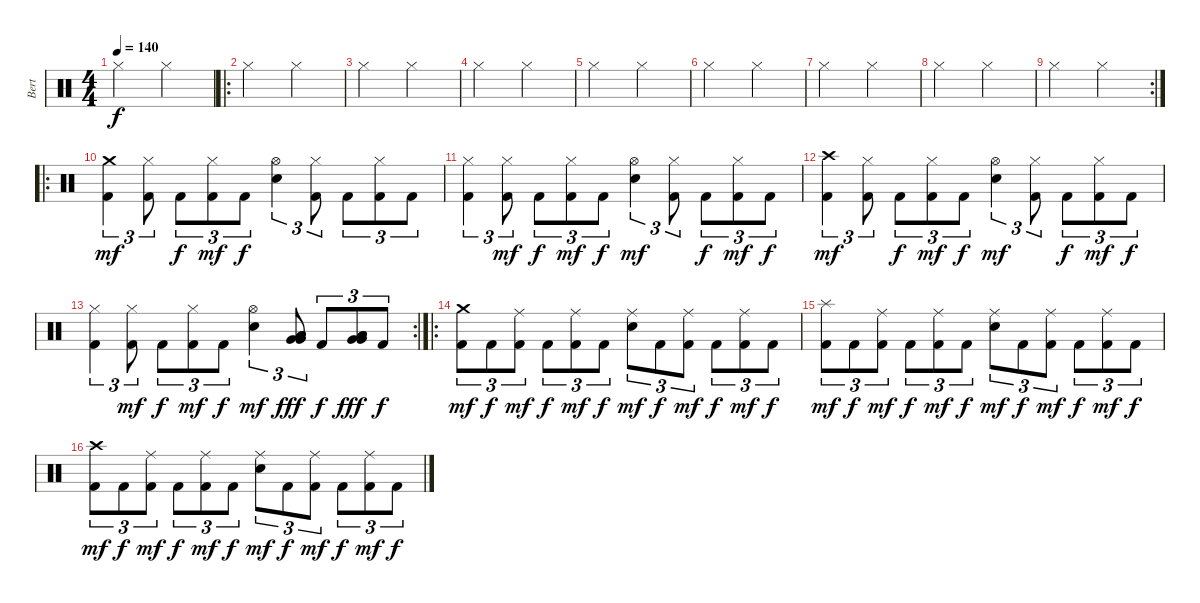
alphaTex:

\track ("Bert" "Bert") {instrument percussion}
\staff {score}
\articulation defaults
\ts (4 4)
\tempo 140
\clef neutral
\ks c "Hi-Hat (closed)".2{dy f} "Hi-Hat (closed)".2
|
\ro "Hi-Hat (closed)".2 "Hi-Hat (closed)".2
|
"Hi-Hat (closed)".2 "Hi-Hat (closed)".2 |
"Hi-Hat (closed)".2 "Hi-Hat (closed)".2 |
"Hi-Hat (closed)".2 "Hi-Hat (closed)".2 |
"Hi-Hat (closed)".2 "Hi-Hat (closed)".2 |
"Hi-Hat (closed)".2 "Hi-Hat (closed)".2 |
"Hi-Hat (closed)".2 "Hi-Hat (closed)".2 |
\rc 2 "Hi-Hat (closed)".2 "Hi-Hat (closed)".2
|
\ro
("Crash medium (hit)" "Kick (hit) 2").4{tu (3 2) dy mf} ("Hi-Hat (closed)" "Kick (hit) 2").8{tu (3 2)} "Kick (hit) 2".8{tu (3 2) dy f} ("Hi-Hat (closed)" "Kick (hit) 2").8{tu (3 2) dy mf} "Kick (hit) 2".8{tu (3 2) dy f} ("Hi-Hat (open)" "Snare (hit) 2").4{tu (3 2)} ("Hi-Hat (closed)" "Kick (hit) 2").8{tu (3 2)} "Kick (hit) 2".8{tu (3 2)} ("Hi-Hat (closed)" "Kick (hit) 2").8{tu (3 2)} "Kick (hit) 2".8{tu (3 2)} |
("Hi-Hat (closed)" "Kick (hit) 2").4{tu (3 2)} ("Hi-Hat (closed)" "Kick (hit) 2").8{tu (3 2) dy mf} "Kick (hit) 2".8{tu (3 2) dy f} ("Hi-Hat (closed)" "Kick (hit) 2").8{tu (3 2) dy mf} "Kick (hit) 2".8{tu (3 2) dy f} ("Hi-Hat (open)" "Snare (hit) 2").4{tu (3 2) dy mf} ("Hi-Hat (closed)" "Kick (hit) 2").8{tu (3 2)} "Kick (hit) 2".8{tu (3 2) dy f} ("Hi-Hat (closed)" "Kick (hit) 2").8{tu (3 2) dy mf} "Kick (hit) 2".8{tu (3 2) dy f} |
("Crash high (hit)" "Kick (hit) 2").4{tu (3 2) dy mf} ("Hi-Hat (closed)" "Kick (hit) 2").8{tu (3 2)} "Kick (hit) 2".8{tu (3 2) dy f} ("Hi-Hat (closed)" "Kick (hit) 2").8{tu (3 2) dy mf} "Kick (hit) 2".8{tu (3 2) dy f} ("Hi-Hat (open)" "Snare (hit) 2").4{tu (3 2) dy mf} ("Hi-Hat (closed)" "Kick (hit) 2").8{tu (3 2)} "Kick (hit) 2".8{tu (3 2) dy f} ("Hi-Hat (closed)" "Kick (hit) 2").8{tu (3 2) dy mf} "Kick (hit) 2".8{tu (3 2) dy f} |
\rc 2
("Hi-Hat (closed)" "Kick (hit) 2").4{tu (3 2)} ("Hi-Hat (closed)" "Kick (hit) 2").8{tu (3 2) dy mf} "Kick (hit) 2".8{tu (3 2) dy f} ("Hi-Hat (closed)" "Kick (hit) 2").8{tu (3 2) dy mf} "Kick (hit) 2".8{tu (3 2) dy f} ("Hi-Hat (open)" "Snare (hit) 2").4{tu (3 2) dy mf} ("Low Tom (hit)" "Low Tom (hit)" "Very Low Tom (hit)" "Very Low Tom (hit)").8{tu (3 2) dy fff} "Kick (hit) 2".8{tu (3 2) dy f} ("Low Tom (hit)" "Low Tom (hit)" "Very Low Tom (hit)" "Very Low Tom (hit)").8{tu (3 2) dy fff} "Kick (hit) 2".8{tu (3 2) dy f} |
\ro
("Crash medium (hit)" "Kick (hit) 2").8{tu (3 2) dy mf} "Kick (hit) 2".8{tu (3 2) dy f} ("Ride (middle)" "Kick (hit) 2").8{tu (3 2) dy mf} "Kick (hit) 2".8{tu (3 2) dy f} ("Ride (middle)" "Kick (hit) 2").8{tu (3 2) dy mf} "Kick (hit) 2".8{tu (3 2) dy f} ("Ride (middle)" "Snare (hit) 2").8{tu (3 2) dy mf} "Kick (hit) 2".8{tu (3 2) dy f} ("Ride (middle)" "Kick (hit) 2").8{tu (3 2) dy mf} "Kick (hit) 2".8{tu (3 2) dy f} ("Ride (middle)" "Kick (hit) 2").8{tu (3 2) dy mf} "Kick (hit) 2".8{tu (3 2) dy f} |
("Splash (hit)" "Kick (hit) 2").8{tu (3 2) dy mf} "Kick (hit) 2".8{tu (3 2) dy f} ("Ride (middle)" "Kick (hit) 2").8{tu (3 2) dy mf} "Kick (hit) 2".8{tu (3 2) dy f} ("Ride (middle)" "Kick (hit) 2").8{tu (3 2) dy mf} "Kick (hit) 2".8{tu (3 2) dy f} ("Ride (middle)" "Snare (hit) 2").8{tu (3 2) dy mf} "Kick (hit) 2".8{tu (3 2) dy f} ("Ride (middle)" "Kick (hit) 2").8{tu (3 2) dy mf} "Kick (hit) 2".8{tu (3 2) dy f} ("Ride (middle)" "Kick (hit) 2").8{tu (3 2) dy mf} "Kick (hit) 2".8{tu (3 2) dy f} |
("Crash high (hit)" "Kick (hit) 2").8{tu (3 2) dy mf} "Kick (hit) 2".8{tu (3 2) dy f} ("Ride (middle)" "Kick (hit) 2").8{tu (3 2) dy mf} "Kick (hit) 2".8{tu (3 2) dy f} ("Ride (middle)" "Kick (hit) 2").8{tu (3 2) dy mf} "Kick (hit) 2".8{tu (3 2) dy f} ("Ride (middle)" "Snare (hit) 2").8{tu (3 2) dy mf} "Kick (hit) 2".8{tu (3 2) dy f} ("Ride (middle)" "Kick (hit) 2").8{tu (3 2) dy mf} "Kick (hit) 2".8{tu (3 2) dy f} ("Ride (middle)" "Kick (hit) 2").8{tu (3 2) dy mf} "Kick (hit) 2".8{tu (3 2) dy f}
